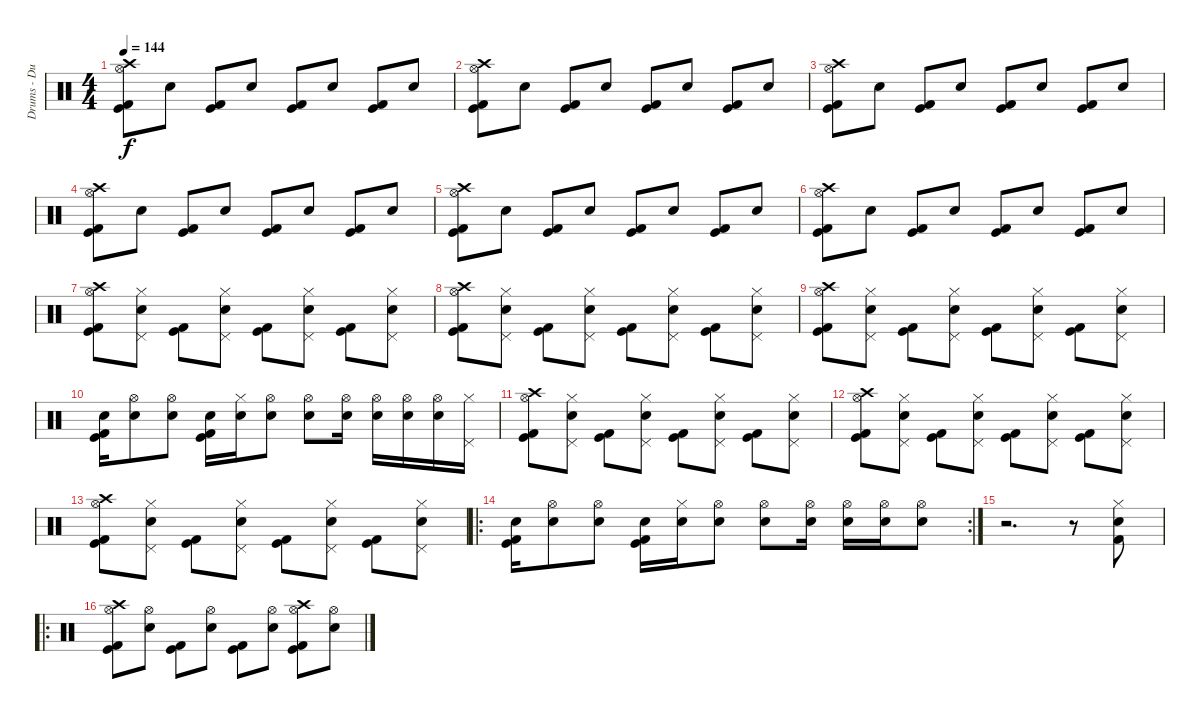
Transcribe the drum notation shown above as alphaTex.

\track ("Drums - Duncan Scott" "Drums - Du") {instrument percussion}
\staff {score}
\articulation defaults
\ts (4 4)
\tempo 144
\clef neutral
\ks c
("Crash high (hit)" "Hi-Hat (open)" "Kick (hit)" "Kick (hit) 2").8{dy f} "Electric Snare (hit)".8 ("Kick (hit)" "Kick (hit) 2").8 "Electric Snare (hit)".8 ("Kick (hit)" "Kick (hit) 2").8 "Electric Snare (hit)".8 ("Kick (hit)" "Kick (hit) 2").8 "Electric Snare (hit)".8 |
("Crash high (hit)" "Hi-Hat (open)" "Kick (hit)" "Kick (hit) 2").8 "Electric Snare (hit)".8 ("Kick (hit)" "Kick (hit) 2").8 "Electric Snare (hit)".8 ("Kick (hit)" "Kick (hit) 2").8 "Electric Snare (hit)".8 ("Kick (hit)" "Kick (hit) 2").8 "Electric Snare (hit)".8 |
("Crash high (hit)" "Hi-Hat (open)" "Kick (hit)" "Kick (hit) 2").8 "Electric Snare (hit)".8 ("Kick (hit)" "Kick (hit) 2").8 "Electric Snare (hit)".8 ("Kick (hit)" "Kick (hit) 2").8 "Electric Snare (hit)".8 ("Kick (hit)" "Kick (hit) 2").8 "Electric Snare (hit)".8 |
("Crash high (hit)" "Hi-Hat (open)" "Kick (hit)" "Kick (hit) 2").8 "Electric Snare (hit)".8 ("Kick (hit)" "Kick (hit) 2").8 "Electric Snare (hit)".8 ("Kick (hit)" "Kick (hit) 2").8 "Electric Snare (hit)".8 ("Kick (hit)" "Kick (hit) 2").8 "Electric Snare (hit)".8 |
("Crash high (hit)" "Hi-Hat (open)" "Kick (hit)" "Kick (hit) 2").8 "Electric Snare (hit)".8 ("Kick (hit)" "Kick (hit) 2").8 "Electric Snare (hit)".8 ("Kick (hit)" "Kick (hit) 2").8 "Electric Snare (hit)".8 ("Kick (hit)" "Kick (hit) 2").8 "Electric Snare (hit)".8 |
("Crash high (hit)" "Hi-Hat (open)" "Kick (hit)" "Kick (hit) 2").8 "Electric Snare (hit)".8 ("Kick (hit)" "Kick (hit) 2").8 "Electric Snare (hit)".8 ("Kick (hit)" "Kick (hit) 2").8 "Electric Snare (hit)".8 ("Kick (hit)" "Kick (hit) 2").8 "Electric Snare (hit)".8 |
("Crash high (hit)" "Hi-Hat (open)" "Kick (hit)" "Kick (hit) 2").8 ("Pedal Hi-Hat (hit)" "Hi-Hat (closed)" "Electric Snare (hit)").8 ("Kick (hit)" "Kick (hit) 2").8 ("Pedal Hi-Hat (hit)" "Hi-Hat (closed)" "Electric Snare (hit)").8 ("Kick (hit)" "Kick (hit) 2").8 ("Pedal Hi-Hat (hit)" "Hi-Hat (closed)" "Electric Snare (hit)").8 ("Kick (hit)" "Kick (hit) 2").8 ("Pedal Hi-Hat (hit)" "Hi-Hat (closed)" "Electric Snare (hit)").8 |
("Crash high (hit)" "Hi-Hat (open)" "Kick (hit)" "Kick (hit) 2").8 ("Pedal Hi-Hat (hit)" "Hi-Hat (closed)" "Electric Snare (hit)").8 ("Kick (hit)" "Kick (hit) 2").8 ("Pedal Hi-Hat (hit)" "Hi-Hat (closed)" "Electric Snare (hit)").8 ("Kick (hit)" "Kick (hit) 2").8 ("Pedal Hi-Hat (hit)" "Hi-Hat (closed)" "Electric Snare (hit)").8 ("Kick (hit)" "Kick (hit) 2").8 ("Pedal Hi-Hat (hit)" "Hi-Hat (closed)" "Electric Snare (hit)").8 |
("Crash high (hit)" "Hi-Hat (open)" "Kick (hit)" "Kick (hit) 2").8 ("Pedal Hi-Hat (hit)" "Hi-Hat (closed)" "Electric Snare (hit)").8 ("Kick (hit)" "Kick (hit) 2").8 ("Pedal Hi-Hat (hit)" "Hi-Hat (closed)" "Electric Snare (hit)").8 ("Kick (hit)" "Kick (hit) 2").8 ("Pedal Hi-Hat (hit)" "Hi-Hat (closed)" "Electric Snare (hit)").8 ("Kick (hit)" "Kick (hit) 2").8 ("Pedal Hi-Hat (hit)" "Hi-Hat (closed)" "Electric Snare (hit)").8 |
("Electric Snare (hit)" "Kick (hit) 2" "Kick (hit)").16 ("Electric Snare (hit)" "Hi-Hat (open)").8 ("Electric Snare (hit)" "Hi-Hat (open)").8 ("Electric Snare (hit)" "Kick (hit) 2" "Kick (hit)").16 ("Electric Snare (hit)" "Hi-Hat (closed)").16 ("Electric Snare (hit)" "Hi-Hat (open)").8 ("Electric Snare (hit)" "Hi-Hat (open)").8 ("Electric Snare (hit)" "Hi-Hat (open)").16 ("Electric Snare (hit)" "Hi-Hat (open)").16 ("Electric Snare (hit)" "Hi-Hat (open)").16 ("Electric Snare (hit)" "Hi-Hat (open)").16 ("Hi-Hat (closed)" "Pedal Hi-Hat (hit)").16 |
("Crash high (hit)" "Hi-Hat (open)" "Kick (hit)" "Kick (hit) 2").8 ("Pedal Hi-Hat (hit)" "Hi-Hat (closed)" "Electric Snare (hit)").8 ("Kick (hit)" "Kick (hit) 2").8 ("Pedal Hi-Hat (hit)" "Hi-Hat (closed)" "Electric Snare (hit)").8 ("Kick (hit)" "Kick (hit) 2").8 ("Pedal Hi-Hat (hit)" "Hi-Hat (closed)" "Electric Snare (hit)").8 ("Kick (hit)" "Kick (hit) 2").8 ("Pedal Hi-Hat (hit)" "Hi-Hat (closed)" "Electric Snare (hit)").8 |
("Crash high (hit)" "Hi-Hat (open)" "Kick (hit)" "Kick (hit) 2").8 ("Pedal Hi-Hat (hit)" "Hi-Hat (closed)" "Electric Snare (hit)").8 ("Kick (hit)" "Kick (hit) 2").8 ("Pedal Hi-Hat (hit)" "Hi-Hat (closed)" "Electric Snare (hit)").8 ("Kick (hit)" "Kick (hit) 2").8 ("Pedal Hi-Hat (hit)" "Hi-Hat (closed)" "Electric Snare (hit)").8 ("Kick (hit)" "Kick (hit) 2").8 ("Pedal Hi-Hat (hit)" "Hi-Hat (closed)" "Electric Snare (hit)").8 |
("Crash high (hit)" "Hi-Hat (open)" "Kick (hit)" "Kick (hit) 2").8 ("Pedal Hi-Hat (hit)" "Hi-Hat (closed)" "Electric Snare (hit)").8 ("Kick (hit)" "Kick (hit) 2").8 ("Pedal Hi-Hat (hit)" "Hi-Hat (closed)" "Electric Snare (hit)").8 ("Kick (hit)" "Kick (hit) 2").8 ("Pedal Hi-Hat (hit)" "Hi-Hat (closed)" "Electric Snare (hit)").8 ("Kick (hit)" "Kick (hit) 2").8 ("Pedal Hi-Hat (hit)" "Hi-Hat (closed)" "Electric Snare (hit)").8 |
\ro
\rc 2
("Electric Snare (hit)" "Kick (hit) 2" "Kick (hit)").16 ("Electric Snare (hit)" "Hi-Hat (open)").8 ("Electric Snare (hit)" "Hi-Hat (open)").8 ("Electric Snare (hit)" "Kick (hit) 2" "Kick (hit)").16 ("Electric Snare (hit)" "Hi-Hat (closed)").16 ("Electric Snare (hit)" "Hi-Hat (open)").8 ("Electric Snare (hit)" "Hi-Hat (open)").8 ("Electric Snare (hit)" "Hi-Hat (open)").16 ("Electric Snare (hit)" "Hi-Hat (open)").16 ("Electric Snare (hit)" "Hi-Hat (open)").16 ("Electric Snare (hit)" "Hi-Hat (open)").8 |
r.2{d} r.8 ("Electric Snare (hit)" "Hi-Hat (closed)" "Kick (hit) 2").8 |
\ro
("Hi-Hat (open)" "Crash high (hit)" "Kick (hit)" "Kick (hit) 2").8 ("Hi-Hat (open)" "Electric Snare (hit)").8 ("Kick (hit)" "Kick (hit) 2").8 ("Hi-Hat (open)" "Electric Snare (hit)").8 ("Kick (hit)" "Kick (hit) 2").8 ("Hi-Hat (open)" "Electric Snare (hit)").8 ("Hi-Hat (open)" "Crash high (hit)" "Kick (hit)" "Kick (hit) 2").8 ("Hi-Hat (open)" "Electric Snare (hit)").8
